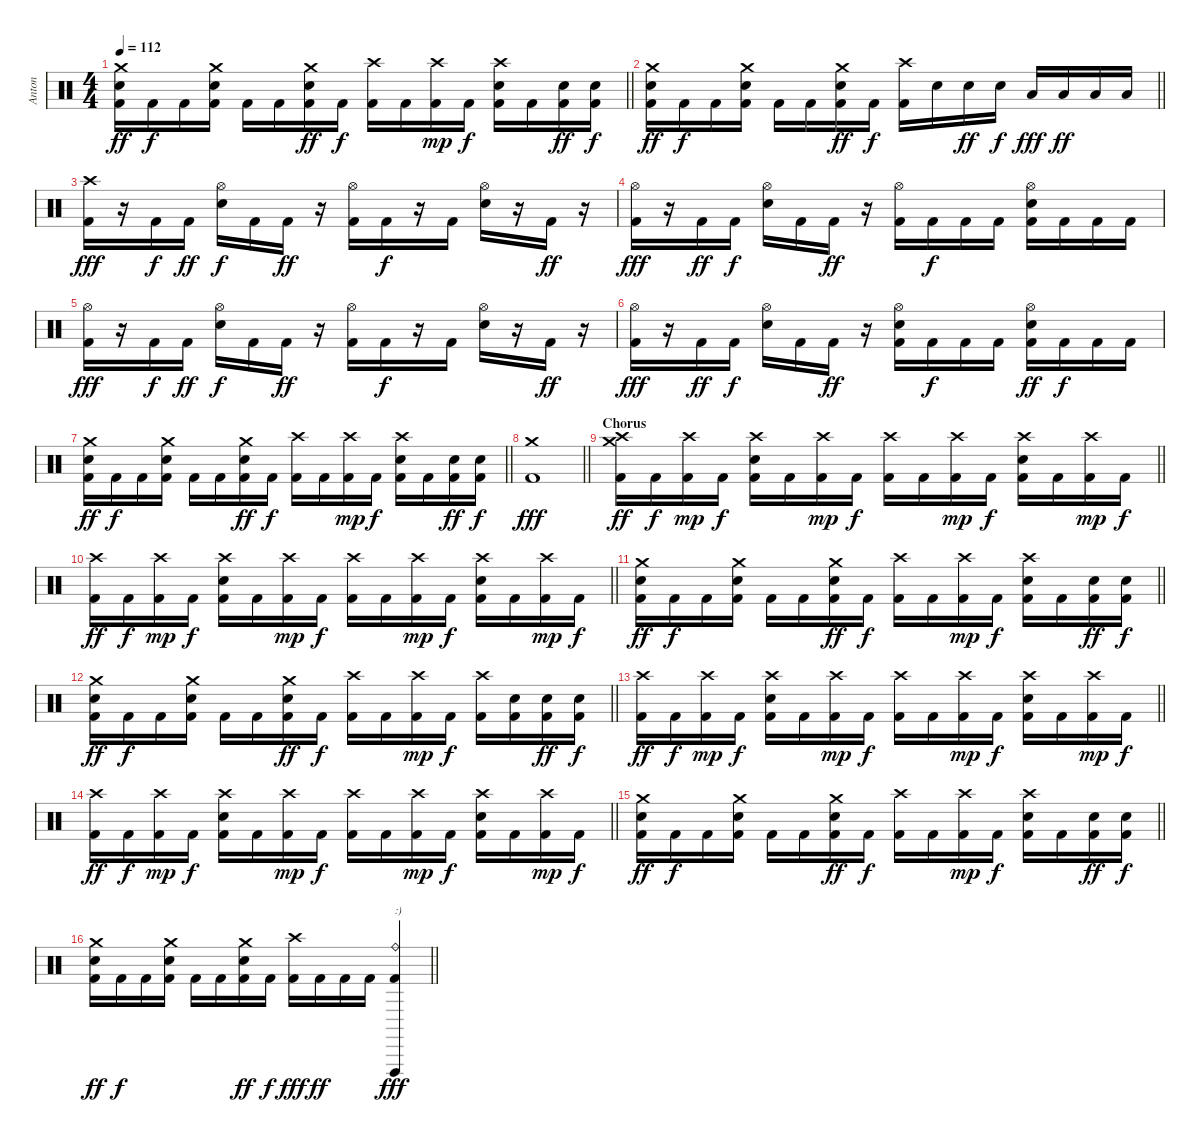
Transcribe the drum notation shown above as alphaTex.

\track ("Anton" "Anton") {instrument percussion}
\staff
\articulation defaults
\ts (4 4)
\tempo 112
\clef neutral
\barLineRight lightlight
\ks c
("Crash medium (hit)" "Electric Snare (hit)" "Kick (hit) 2").16{dy ff} "Kick (hit) 2".16{dy f} "Kick (hit) 2".16 ("Crash medium (hit)" "Electric Snare (hit)" "Kick (hit) 2").16 "Kick (hit) 2".16 "Kick (hit) 2".16 ("Crash medium (hit)" "Electric Snare (hit)" "Kick (hit) 2").16{dy ff} "Kick (hit) 2".16{dy f} ("Crash high (hit)" "Kick (hit) 2").16 "Kick (hit) 2".16 ("Crash high (hit)" "Kick (hit) 2").16{dy mp} "Kick (hit) 2".16{dy f} ("Crash high (hit)" "Electric Snare (hit)" "Kick (hit) 2").16 "Kick (hit) 2".16 ("Electric Snare (hit)" "Kick (hit) 2").16{dy ff} ("Electric Snare (hit)" "Kick (hit) 2").16{dy f} |
\barLineRight lightlight
("Crash medium (hit)" "Electric Snare (hit)" "Kick (hit) 2").16{dy ff} "Kick (hit) 2".16{dy f} "Kick (hit) 2".16 ("Crash medium (hit)" "Electric Snare (hit)" "Kick (hit) 2").16 "Kick (hit) 2".16 "Kick (hit) 2".16 ("Crash medium (hit)" "Electric Snare (hit)" "Kick (hit) 2").16{dy ff} "Kick (hit) 2".16{dy f} ("Crash high (hit)" "Kick (hit) 2").16 "Electric Snare (hit)".16 "Electric Snare (hit)".16{dy ff} "Electric Snare (hit)".16{dy f} "Low Tom (hit)".16{dy fff} "Low Tom (hit)".16{dy ff} "Low Floor Tom (hit)".16 "Low Floor Tom (hit)".16 |
("Crash high (hit)" "Kick (hit) 2").16{dy fff} r.16 "Kick (hit) 2".16{dy f} "Kick (hit) 2".16{dy ff} ("Hi-Hat (open)" "Electric Snare (hit)").16{dy f} "Kick (hit) 2".16 "Kick (hit) 2".16{dy ff} r.16 ("Hi-Hat (open)" "Kick (hit) 2").16 "Kick (hit) 2".16{dy f} r.16 "Kick (hit) 2".16 ("Hi-Hat (open)" "Electric Snare (hit)").16 r.16 "Kick (hit) 2".16{dy ff} r.16 |
("Hi-Hat (open)" "Kick (hit) 2").16{dy fff} r.16 "Kick (hit) 2".16{dy ff} "Kick (hit) 2".16{dy f} ("Hi-Hat (open)" "Electric Snare (hit)").16 "Kick (hit) 2".16 "Kick (hit) 2".16{dy ff} r.16 ("Hi-Hat (open)" "Kick (hit) 2").16 "Kick (hit) 2".16{dy f} "Kick (hit) 2".16 "Kick (hit) 2".16 ("Hi-Hat (open)" "Electric Snare (hit)" "Kick (hit) 2").16 "Kick (hit) 2".16 "Kick (hit) 2".16 "Kick (hit) 2".16 |
("Hi-Hat (open)" "Kick (hit) 2").16{dy fff} r.16 "Kick (hit) 2".16{dy f} "Kick (hit) 2".16{dy ff} ("Hi-Hat (open)" "Electric Snare (hit)").16{dy f} "Kick (hit) 2".16 "Kick (hit) 2".16{dy ff} r.16 ("Hi-Hat (open)" "Kick (hit) 2").16 "Kick (hit) 2".16{dy f} r.16 "Kick (hit) 2".16 ("Hi-Hat (open)" "Electric Snare (hit)").16 r.16 "Kick (hit) 2".16{dy ff} r.16 |
("Hi-Hat (open)" "Kick (hit) 2").16{dy fff} r.16 "Kick (hit) 2".16{dy ff} "Kick (hit) 2".16{dy f} ("Hi-Hat (open)" "Electric Snare (hit)").16 "Kick (hit) 2".16 "Kick (hit) 2".16{dy ff} r.16 ("Hi-Hat (open)" "Electric Snare (hit)" "Kick (hit) 2").16 "Kick (hit) 2".16{dy f} "Kick (hit) 2".16 "Kick (hit) 2".16 ("Hi-Hat (open)" "Electric Snare (hit)" "Kick (hit) 2").16{dy ff} "Kick (hit) 2".16{dy f} "Kick (hit) 2".16 "Kick (hit) 2".16 |
\barLineRight lightlight
("Crash medium (hit)" "Electric Snare (hit)" "Kick (hit) 2").16{dy ff} "Kick (hit) 2".16{dy f} "Kick (hit) 2".16 ("Crash medium (hit)" "Electric Snare (hit)" "Kick (hit) 2").16 "Kick (hit) 2".16 "Kick (hit) 2".16 ("Crash medium (hit)" "Electric Snare (hit)" "Kick (hit) 2").16{dy ff} "Kick (hit) 2".16{dy f} ("Crash high (hit)" "Kick (hit) 2").16 "Kick (hit) 2".16 ("Crash high (hit)" "Kick (hit) 2").16{dy mp} "Kick (hit) 2".16{dy f} ("Crash high (hit)" "Electric Snare (hit)" "Kick (hit) 2").16 "Kick (hit) 2".16 ("Electric Snare (hit)" "Kick (hit) 2").16{dy ff} ("Electric Snare (hit)" "Kick (hit) 2").16{dy f} |
\barLineRight lightlight
("Crash medium (hit)" "Kick (hit) 2").1{dy fff} |
\section ("" "Chorus")
\barLineRight lightlight
("Crash medium (hit)" "Crash high (hit)" "Kick (hit) 2").16{dy ff} "Kick (hit) 2".16{dy f} ("Crash high (hit)" "Kick (hit) 2").16{dy mp} "Kick (hit) 2".16{dy f} ("Crash high (hit)" "Electric Snare (hit)" "Kick (hit) 2").16 "Kick (hit) 2".16 ("Crash high (hit)" "Kick (hit) 2").16{dy mp} "Kick (hit) 2".16{dy f} ("Crash high (hit)" "Kick (hit) 2").16 "Kick (hit) 2".16 ("Crash high (hit)" "Kick (hit) 2").16{dy mp} "Kick (hit) 2".16{dy f} ("Crash high (hit)" "Electric Snare (hit)" "Kick (hit) 2").16 "Kick (hit) 2".16 ("Crash high (hit)" "Kick (hit) 2").16{dy mp} "Kick (hit) 2".16{dy f} |
\barLineRight lightlight
("Crash high (hit)" "Kick (hit) 2").16{dy ff} "Kick (hit) 2".16{dy f} ("Crash high (hit)" "Kick (hit) 2").16{dy mp} "Kick (hit) 2".16{dy f} ("Crash high (hit)" "Electric Snare (hit)" "Kick (hit) 2").16 "Kick (hit) 2".16 ("Crash high (hit)" "Kick (hit) 2").16{dy mp} "Kick (hit) 2".16{dy f} ("Crash high (hit)" "Kick (hit) 2").16 "Kick (hit) 2".16 ("Crash high (hit)" "Kick (hit) 2").16{dy mp} "Kick (hit) 2".16{dy f} ("Crash high (hit)" "Electric Snare (hit)" "Kick (hit) 2").16 "Kick (hit) 2".16 ("Crash high (hit)" "Kick (hit) 2").16{dy mp} "Kick (hit) 2".16{dy f} |
\barLineRight lightlight
("Crash medium (hit)" "Electric Snare (hit)" "Kick (hit) 2").16{dy ff} "Kick (hit) 2".16{dy f} "Kick (hit) 2".16 ("Crash medium (hit)" "Electric Snare (hit)" "Kick (hit) 2").16 "Kick (hit) 2".16 "Kick (hit) 2".16 ("Crash medium (hit)" "Electric Snare (hit)" "Kick (hit) 2").16{dy ff} "Kick (hit) 2".16{dy f} ("Crash high (hit)" "Kick (hit) 2").16 "Kick (hit) 2".16 ("Crash high (hit)" "Kick (hit) 2").16{dy mp} "Kick (hit) 2".16{dy f} ("Crash high (hit)" "Electric Snare (hit)" "Kick (hit) 2").16 "Kick (hit) 2".16 ("Electric Snare (hit)" "Kick (hit) 2").16{dy ff} ("Electric Snare (hit)" "Kick (hit) 2").16{dy f} |
\barLineRight lightlight
("Crash medium (hit)" "Electric Snare (hit)" "Kick (hit) 2").16{dy ff} "Kick (hit) 2".16{dy f} "Kick (hit) 2".16 ("Crash medium (hit)" "Electric Snare (hit)" "Kick (hit) 2").16 "Kick (hit) 2".16 "Kick (hit) 2".16 ("Crash medium (hit)" "Electric Snare (hit)" "Kick (hit) 2").16{dy ff} "Kick (hit) 2".16{dy f} ("Crash high (hit)" "Kick (hit) 2").16 "Kick (hit) 2".16 ("Crash high (hit)" "Kick (hit) 2").16{dy mp} "Kick (hit) 2".16{dy f} ("Crash high (hit)" "Kick (hit) 2").16 ("Electric Snare (hit)" "Kick (hit) 2").16 ("Electric Snare (hit)" "Kick (hit) 2").16{dy ff} ("Electric Snare (hit)" "Kick (hit) 2").16{dy f} |
\barLineRight lightlight
("Crash high (hit)" "Kick (hit) 2").16{dy ff} "Kick (hit) 2".16{dy f} ("Crash high (hit)" "Kick (hit) 2").16{dy mp} "Kick (hit) 2".16{dy f} ("Crash high (hit)" "Electric Snare (hit)" "Kick (hit) 2").16 "Kick (hit) 2".16 ("Crash high (hit)" "Kick (hit) 2").16{dy mp} "Kick (hit) 2".16{dy f} ("Crash high (hit)" "Kick (hit) 2").16 "Kick (hit) 2".16 ("Crash high (hit)" "Kick (hit) 2").16{dy mp} "Kick (hit) 2".16{dy f} ("Crash high (hit)" "Electric Snare (hit)" "Kick (hit) 2").16 "Kick (hit) 2".16 ("Crash high (hit)" "Kick (hit) 2").16{dy mp} "Kick (hit) 2".16{dy f} |
\barLineRight lightlight
("Crash high (hit)" "Kick (hit) 2").16{dy ff} "Kick (hit) 2".16{dy f} ("Crash high (hit)" "Kick (hit) 2").16{dy mp} "Kick (hit) 2".16{dy f} ("Crash high (hit)" "Electric Snare (hit)" "Kick (hit) 2").16 "Kick (hit) 2".16 ("Crash high (hit)" "Kick (hit) 2").16{dy mp} "Kick (hit) 2".16{dy f} ("Crash high (hit)" "Kick (hit) 2").16 "Kick (hit) 2".16 ("Crash high (hit)" "Kick (hit) 2").16{dy mp} "Kick (hit) 2".16{dy f} ("Crash high (hit)" "Electric Snare (hit)" "Kick (hit) 2").16 "Kick (hit) 2".16 ("Crash high (hit)" "Kick (hit) 2").16{dy mp} "Kick (hit) 2".16{dy f} |
\barLineRight lightlight
("Crash medium (hit)" "Electric Snare (hit)" "Kick (hit) 2").16{dy ff} "Kick (hit) 2".16{dy f} "Kick (hit) 2".16 ("Crash medium (hit)" "Electric Snare (hit)" "Kick (hit) 2").16 "Kick (hit) 2".16 "Kick (hit) 2".16 ("Crash medium (hit)" "Electric Snare (hit)" "Kick (hit) 2").16{dy ff} "Kick (hit) 2".16{dy f} ("Crash high (hit)" "Kick (hit) 2").16 "Kick (hit) 2".16 ("Crash high (hit)" "Kick (hit) 2").16{dy mp} "Kick (hit) 2".16{dy f} ("Crash high (hit)" "Electric Snare (hit)" "Kick (hit) 2").16 "Kick (hit) 2".16 ("Electric Snare (hit)" "Kick (hit) 2").16{dy ff} ("Electric Snare (hit)" "Kick (hit) 2").16{dy f} |
\barLineRight lightlight
("Crash medium (hit)" "Electric Snare (hit)" "Kick (hit) 2").16{dy ff} "Kick (hit) 2".16{dy f} "Kick (hit) 2".16 ("Crash medium (hit)" "Electric Snare (hit)" "Kick (hit) 2").16 "Kick (hit) 2".16 "Kick (hit) 2".16 ("Crash medium (hit)" "Electric Snare (hit)" "Kick (hit) 2").16{dy ff} "Kick (hit) 2".16{dy f} ("Crash high (hit)" "Kick (hit) 2").16{dy fff} "Kick (hit) 2".16{dy ff} "Kick (hit) 2".16 "Kick (hit) 2".16 ("Ride (bell)" "Vibraslap (hit)" "Kick (hit) 2").4{txt ":)" dy fff}
